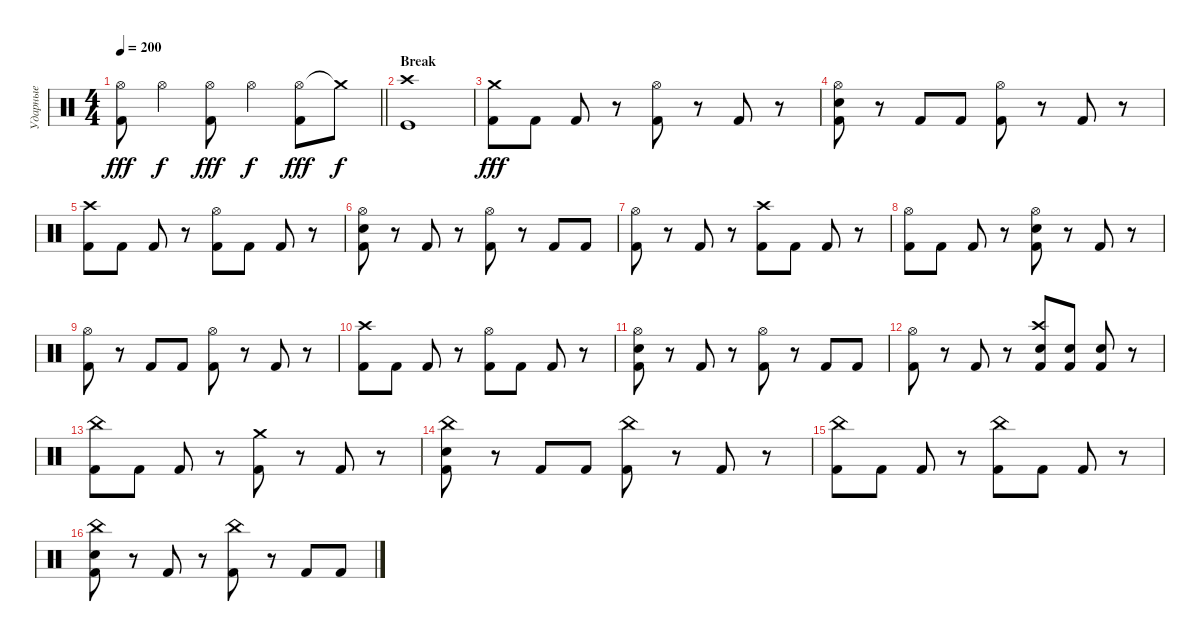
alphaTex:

\track ("Ударные" "Ударные") {instrument percussion}
\staff {score}
\articulation defaults
\ts (4 4)
\tempo 200
\clef neutral
\barLineRight lightlight
\ks c
("Hi-Hat (open)" "Kick (hit) 2").8{dy fff} "Hi-Hat (open)".4{dy f} ("Hi-Hat (open)" "Kick (hit) 2").8{dy fff} "Hi-Hat (open)".4{dy f} ("Hi-Hat (open)" "Kick (hit) 2").8{dy fff} "Crash medium (hit)"{t}.8{dy f} |
\section ("" "Break")
("Crash high (hit)" "Kick (hit)").1 |
("Crash medium (hit)" "Kick (hit) 2").8{dy fff} "Kick (hit) 2".8 "Kick (hit) 2".8 r.8 ("Hi-Hat (open)" "Kick (hit) 2").8 r.8 "Kick (hit) 2".8 r.8 |
("Hi-Hat (open)" "Electric Snare (hit)" "Kick (hit) 2").8 r.8 "Kick (hit) 2".8 "Kick (hit) 2".8 ("Hi-Hat (open)" "Kick (hit) 2").8 r.8 "Kick (hit) 2".8 r.8 |
("Crash high (hit)" "Kick (hit) 2").8 "Kick (hit) 2".8 "Kick (hit) 2".8 r.8 ("Hi-Hat (open)" "Kick (hit) 2").8 "Kick (hit) 2".8 "Kick (hit) 2".8 r.8 |
("Hi-Hat (open)" "Electric Snare (hit)" "Kick (hit) 2").8 r.8 "Kick (hit) 2".8 r.8 ("Hi-Hat (open)" "Kick (hit) 2").8 r.8 "Kick (hit) 2".8 "Kick (hit) 2".8 |
("Hi-Hat (open)" "Kick (hit) 2").8 r.8 "Kick (hit) 2".8 r.8 ("Crash high (hit)" "Kick (hit) 2").8 "Kick (hit) 2".8 "Kick (hit) 2".8 r.8 |
("Hi-Hat (open)" "Kick (hit) 2").8 "Kick (hit) 2".8 "Kick (hit) 2".8 r.8 ("Hi-Hat (open)" "Electric Snare (hit)" "Kick (hit) 2").8 r.8 "Kick (hit) 2".8 r.8 |
("Hi-Hat (open)" "Kick (hit) 2").8 r.8 "Kick (hit) 2".8 "Kick (hit) 2".8 ("Hi-Hat (open)" "Kick (hit) 2").8 r.8 "Kick (hit) 2".8 r.8 |
("Crash high (hit)" "Kick (hit) 2").8 "Kick (hit) 2".8 "Kick (hit) 2".8 r.8 ("Hi-Hat (open)" "Kick (hit) 2").8 "Kick (hit) 2".8 "Kick (hit) 2".8 r.8 |
("Hi-Hat (open)" "Electric Snare (hit)" "Kick (hit) 2").8 r.8 "Kick (hit) 2".8 r.8 ("Hi-Hat (open)" "Kick (hit) 2").8 r.8 "Kick (hit) 2".8 "Kick (hit) 2".8 |
("Hi-Hat (open)" "Kick (hit) 2").8 r.8 "Kick (hit) 2".8 r.8 ("Crash high (hit)" "Electric Snare (hit)" "Kick (hit) 2").8 ("Electric Snare (hit)" "Kick (hit) 2").8 ("Electric Snare (hit)" "Kick (hit) 2").8 r.8 |
("China (hit)" "Kick (hit) 2").8 "Kick (hit) 2".8 "Kick (hit) 2".8 r.8 ("Crash medium (hit)" "Kick (hit) 2").8 r.8 "Kick (hit) 2".8 r.8 |
("China (hit)" "Electric Snare (hit)" "Kick (hit) 2").8 r.8 "Kick (hit) 2".8 "Kick (hit) 2".8 ("China (hit)" "Kick (hit) 2").8 r.8 "Kick (hit) 2".8 r.8 |
("China (hit)" "Kick (hit) 2").8 "Kick (hit) 2".8 "Kick (hit) 2".8 r.8 ("China (hit)" "Kick (hit) 2").8 "Kick (hit) 2".8 "Kick (hit) 2".8 r.8 |
("China (hit)" "Electric Snare (hit)" "Kick (hit) 2").8 r.8 "Kick (hit) 2".8 r.8 ("China (hit)" "Kick (hit) 2").8 r.8 "Kick (hit) 2".8 "Kick (hit) 2".8
